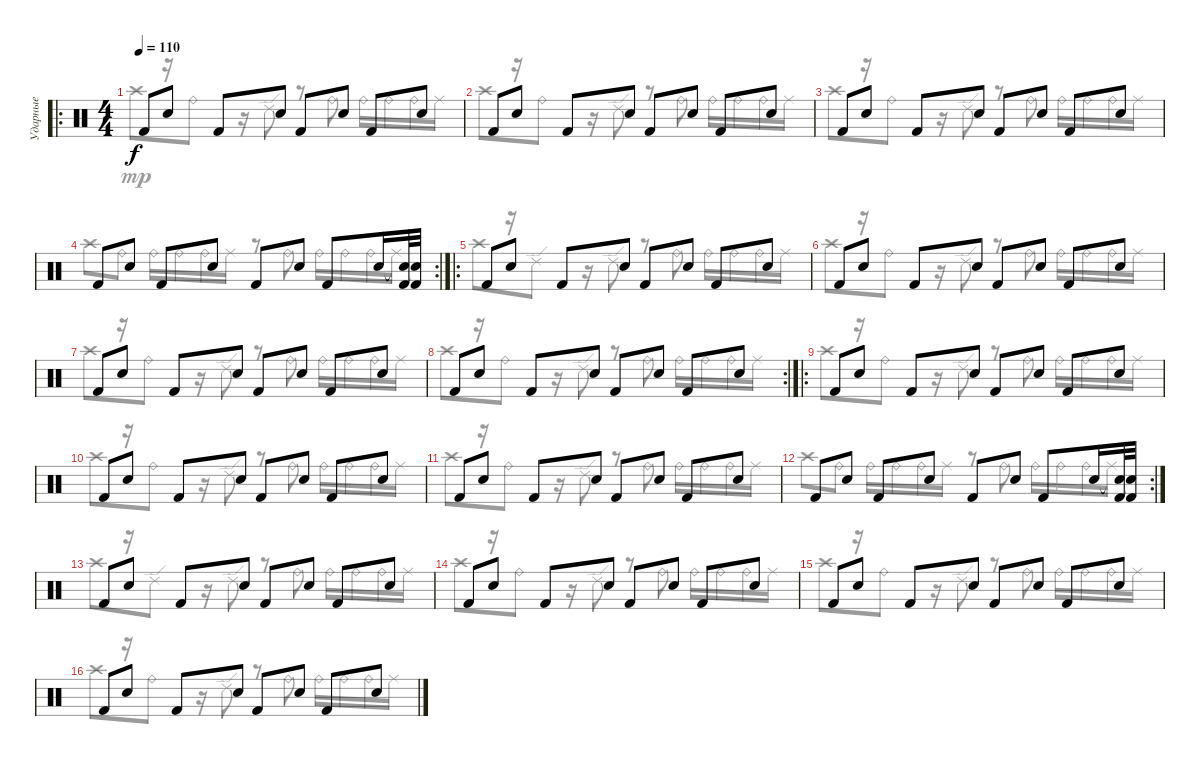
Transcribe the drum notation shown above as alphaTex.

\track ("Ударные" "Ударные") {instrument percussion}
\staff {score}
\articulation defaults
\voice
\ro
\ts (4 4)
\tempo 110
\clef neutral
\ks c "Kick (hit) 2".8{dy f} "Snare (hit) 2".8 "Kick (hit) 2".8 "Snare (hit) 2".8 "Kick (hit) 2".8 "Snare (hit) 2".8 "Kick (hit) 2".8 "Snare (hit) 2".8
|
"Kick (hit) 2".8 "Snare (hit) 2".8 "Kick (hit) 2".8 "Snare (hit) 2".8 "Kick (hit) 2".8 "Snare (hit) 2".8 "Kick (hit) 2".8 "Snare (hit) 2".8 |
"Kick (hit) 2".8 "Snare (hit) 2".8 "Kick (hit) 2".8 "Snare (hit) 2".8 "Kick (hit) 2".8 "Snare (hit) 2".8 "Kick (hit) 2".8 "Snare (hit) 2".8 |
\rc 2 "Kick (hit) 2".8 "Snare (hit) 2".8 "Kick (hit) 2".8 "Snare (hit) 2".8 "Kick (hit) 2".8 "Snare (hit) 2".8 "Kick (hit) 2".8 "Snare (hit) 2".16
("Snare (hit) 2"{t} "Kick (hit) 2").32 ("Snare (hit) 2"{t} "Kick (hit) 2").32 |
\ro "Kick (hit) 2".8 "Snare (hit) 2".8 "Kick (hit) 2".8 "Snare (hit) 2".8 "Kick (hit) 2".8 "Snare (hit) 2".8 "Kick (hit) 2".8 "Snare (hit) 2".8
|
"Kick (hit) 2".8 "Snare (hit) 2".8 "Kick (hit) 2".8 "Snare (hit) 2".8 "Kick (hit) 2".8 "Snare (hit) 2".8 "Kick (hit) 2".8 "Snare (hit) 2".8 |
"Kick (hit) 2".8 "Snare (hit) 2".8 "Kick (hit) 2".8 "Snare (hit) 2".8 "Kick (hit) 2".8 "Snare (hit) 2".8 "Kick (hit) 2".8 "Snare (hit) 2".8 |
\rc 2 "Kick (hit) 2".8 "Snare (hit) 2".8 "Kick (hit) 2".8 "Snare (hit) 2".8 "Kick (hit) 2".8 "Snare (hit) 2".8 "Kick (hit) 2".8 "Snare (hit) 2".8
|
\ro "Kick (hit) 2".8 "Snare (hit) 2".8 "Kick (hit) 2".8 "Snare (hit) 2".8 "Kick (hit) 2".8 "Snare (hit) 2".8 "Kick (hit) 2".8 "Snare (hit) 2".8
|
"Kick (hit) 2".8 "Snare (hit) 2".8 "Kick (hit) 2".8 "Snare (hit) 2".8 "Kick (hit) 2".8 "Snare (hit) 2".8 "Kick (hit) 2".8 "Snare (hit) 2".8 |
"Kick (hit) 2".8 "Snare (hit) 2".8 "Kick (hit) 2".8 "Snare (hit) 2".8 "Kick (hit) 2".8 "Snare (hit) 2".8 "Kick (hit) 2".8 "Snare (hit) 2".8 |
\rc 2 "Kick (hit) 2".8 "Snare (hit) 2".8 "Kick (hit) 2".8 "Snare (hit) 2".8 "Kick (hit) 2".8 "Snare (hit) 2".8 "Kick (hit) 2".8 "Snare (hit) 2".16
("Snare (hit) 2"{t} "Kick (hit) 2").32 ("Snare (hit) 2"{t} "Kick (hit) 2").32 |
"Kick (hit) 2".8 "Snare (hit) 2".8 "Kick (hit) 2".8 "Snare (hit) 2".8 "Kick (hit) 2".8 "Snare (hit) 2".8 "Kick (hit) 2".8 "Snare (hit) 2".8 |
"Kick (hit) 2".8 "Snare (hit) 2".8 "Kick (hit) 2".8 "Snare (hit) 2".8 "Kick (hit) 2".8 "Snare (hit) 2".8 "Kick (hit) 2".8 "Snare (hit) 2".8 |
"Kick (hit) 2".8 "Snare (hit) 2".8 "Kick (hit) 2".8 "Snare (hit) 2".8 "Kick (hit) 2".8 "Snare (hit) 2".8 "Kick (hit) 2".8 "Snare (hit) 2".8 |
"Kick (hit) 2".8 "Snare (hit) 2".8 "Kick (hit) 2".8 "Snare (hit) 2".8 "Kick (hit) 2".8 "Snare (hit) 2".8 "Kick (hit) 2".8 "Snare (hit) 2".8
\voice
\clef neutral
\ottava regular
\simile none
\ks c "Crash high (hit)".8{dy mp}
r.16 "Ride (bell)".8 r.16 "Ride (edge) 2".8 r.8 "Ride (bell)".8 "Ride (bell)".16 "Ride (bell)".16 "Ride (bell)".16 "Ride (middle)".16 |
"Crash high (hit)".8 r.16 "Ride (bell)".8 r.16 "Ride (edge) 2".8 r.8 "Ride (bell)".8 "Ride (bell)".16 "Ride (bell)".16 "Ride (bell)".16 "Ride (middle)".16 |
"Crash high (hit)".8 r.16 "Ride (bell)".8 r.16 "Ride (edge) 2".8 r.8 "Ride (bell)".8 "Ride (bell)".16 "Ride (bell)".16 "Ride (bell)".16 "Ride (middle)".16 |
"Crash high (hit)".8 "Ride (bell)".8 "Ride (bell)".16 "Ride (bell)".16 "Ride (bell)".16 "Ride (middle)".16 r.8 "Ride (bell)".8 "Ride (bell)".16 "Ride (bell)".16 "Ride (bell)".16 "Ride (middle)".16 |
"Crash high (hit)".8 r.16 "Ride (edge) 2".8 r.16 "Ride (edge) 2".8 r.8 "Ride (bell)".8 "Ride (bell)".16 "Ride (bell)".16 "Ride (bell)".16 "Ride (middle)".16 |
"Crash high (hit)".8 r.16 "Ride (bell)".8 r.16 "Ride (edge) 2".8 r.8 "Ride (bell)".8 "Ride (bell)".16 "Ride (bell)".16 "Ride (bell)".16 "Ride (middle)".16 |
"Crash high (hit)".8 r.16 "Ride (bell)".8 r.16 "Ride (edge) 2".8 r.8 "Ride (bell)".8 "Ride (bell)".16 "Ride (bell)".16 "Ride (bell)".16 "Ride (middle)".16 |
"Crash high (hit)".8 r.16 "Ride (bell)".8 r.16 "Ride (edge) 2".8 r.8 "Ride (bell)".8 "Ride (bell)".16 "Ride (bell)".16 "Ride (bell)".16 "Ride (middle)".16 |
"Crash high (hit)".8 r.16 "Ride (bell)".8 r.16 "Ride (edge) 2".8 r.8 "Ride (bell)".8 "Ride (bell)".16 "Ride (bell)".16 "Ride (bell)".16 "Ride (middle)".16 |
"Crash high (hit)".8 r.16 "Ride (bell)".8 r.16 "Ride (edge) 2".8 r.8 "Ride (bell)".8 "Ride (bell)".16 "Ride (bell)".16 "Ride (bell)".16 "Ride (middle)".16 |
"Crash high (hit)".8 r.16 "Ride (bell)".8 r.16 "Ride (edge) 2".8 r.8 "Ride (bell)".8 "Ride (bell)".16 "Ride (bell)".16 "Ride (bell)".16 "Ride (middle)".16 |
"Crash high (hit)".8 "Ride (bell)".8 "Ride (bell)".16 "Ride (bell)".16 "Ride (bell)".16 "Ride (middle)".16 r.8 "Ride (bell)".8 "Ride (bell)".16 "Ride (bell)".16 "Ride (bell)".16 "Ride (middle)".16 |
"Crash high (hit)".8 r.16 "Ride (edge) 2".8 r.16 "Ride (edge) 2".8 r.8 "Ride (bell)".8 "Ride (bell)".16 "Ride (bell)".16 "Ride (bell)".16 "Ride (middle)".16 |
"Crash high (hit)".8 r.16 "Ride (bell)".8 r.16 "Ride (edge) 2".8 r.8 "Ride (bell)".8 "Ride (bell)".16 "Ride (bell)".16 "Ride (bell)".16 "Ride (middle)".16 |
"Crash high (hit)".8 r.16 "Ride (bell)".8 r.16 "Ride (edge) 2".8 r.8 "Ride (bell)".8 "Ride (bell)".16 "Ride (bell)".16 "Ride (bell)".16 "Ride (middle)".16 |
"Crash high (hit)".8 r.16 "Ride (bell)".8 r.16 "Ride (edge) 2".8 r.8 "Ride (bell)".8 "Ride (bell)".16 "Ride (bell)".16 "Ride (bell)".16 "Ride (middle)".16
